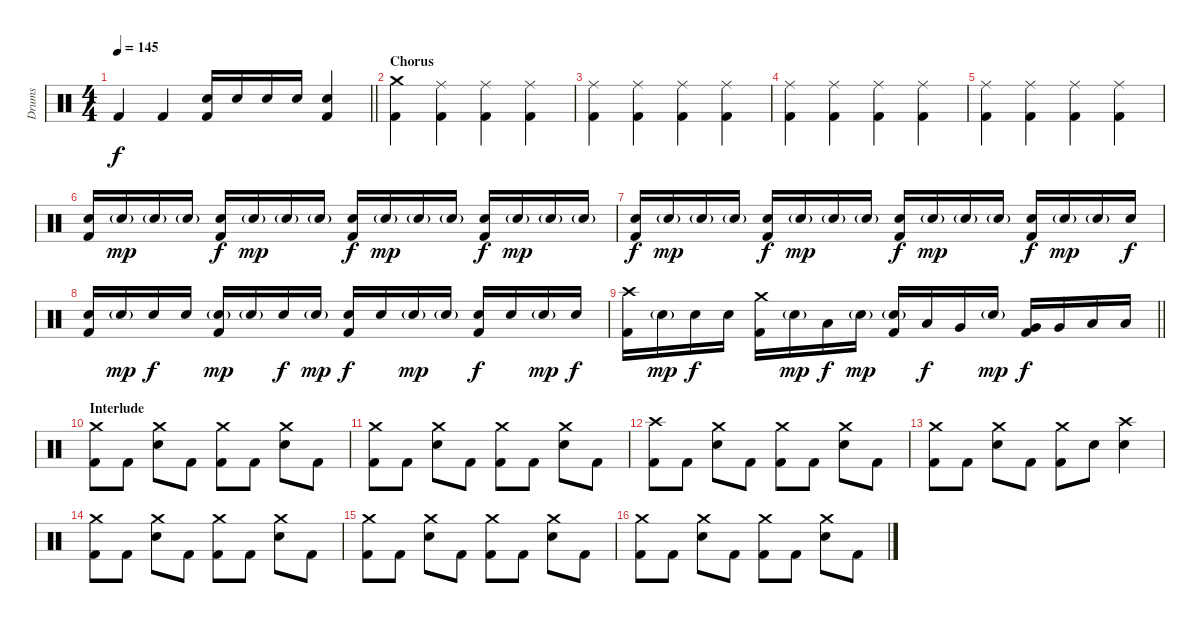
\track ("Drums" "Drums") {instrument percussion}
\staff {score}
\articulation defaults
\ts (4 4)
\tempo 145
\clef neutral
\barLineRight lightlight
\ks c "Kick (hit) 2".4{dy f} "Kick (hit) 2".4
("Electric Snare (hit)" "Kick (hit) 2").16 "Electric Snare (hit)".16 "Electric Snare (hit)".16 "Electric Snare (hit)".16 ("Electric Snare (hit)" "Kick (hit) 2").4 |
\section ("" "Chorus")
("Crash medium (hit)" "Kick (hit) 2").4 ("Ride (middle)" "Kick (hit) 2").4 ("Ride (middle)" "Kick (hit) 2").4 ("Ride (middle)" "Kick (hit) 2").4 |
("Ride (middle)" "Kick (hit) 2").4 ("Ride (middle)" "Kick (hit) 2").4 ("Ride (middle)" "Kick (hit) 2").4 ("Ride (middle)" "Kick (hit) 2").4 |
("Ride (middle)" "Kick (hit) 2").4 ("Ride (middle)" "Kick (hit) 2").4 ("Ride (middle)" "Kick (hit) 2").4 ("Ride (middle)" "Kick (hit) 2").4 |
("Ride (middle)" "Kick (hit) 2").4 ("Ride (middle)" "Kick (hit) 2").4 ("Ride (middle)" "Kick (hit) 2").4 ("Ride (middle)" "Kick (hit) 2").4 |
("Electric Snare (hit)" "Kick (hit) 2").16 "Electric Snare (hit)"{g}.16{dy mp} "Electric Snare (hit)"{g}.16 "Electric Snare (hit)"{g}.16 ("Electric Snare (hit)" "Kick (hit) 2").16{dy f} "Electric Snare (hit)"{g}.16{dy mp} "Electric Snare (hit)"{g}.16 "Electric Snare (hit)"{g}.16 ("Electric Snare (hit)" "Kick (hit) 2").16{dy f} "Electric Snare (hit)"{g}.16{dy mp} "Electric Snare (hit)"{g}.16 "Electric Snare (hit)"{g}.16 ("Electric Snare (hit)" "Kick (hit) 2").16{dy f} "Electric Snare (hit)"{g}.16{dy mp} "Electric Snare (hit)"{g}.16 "Electric Snare (hit)"{g}.16 |
("Electric Snare (hit)" "Kick (hit) 2").16{dy f} "Electric Snare (hit)"{g}.16{dy mp} "Electric Snare (hit)"{g}.16 "Electric Snare (hit)"{g}.16 ("Electric Snare (hit)" "Kick (hit) 2").16{dy f} "Electric Snare (hit)"{g}.16{dy mp} "Electric Snare (hit)"{g}.16 "Electric Snare (hit)"{g}.16 ("Electric Snare (hit)" "Kick (hit) 2").16{dy f} "Electric Snare (hit)"{g}.16{dy mp} "Electric Snare (hit)"{g}.16 "Electric Snare (hit)"{g}.16 ("Electric Snare (hit)" "Kick (hit) 2").16{dy f} "Electric Snare (hit)"{g}.16{dy mp} "Electric Snare (hit)"{g}.16 "Electric Snare (hit)".16{dy f} |
("Electric Snare (hit)" "Kick (hit) 2").16 "Electric Snare (hit)"{g}.16{dy mp} "Electric Snare (hit)".16{dy f} "Electric Snare (hit)".16 ("Electric Snare (hit)"{g} "Kick (hit) 2").16{dy mp} "Electric Snare (hit)"{g}.16 "Electric Snare (hit)".16{dy f} "Electric Snare (hit)"{g}.16{dy mp} ("Electric Snare (hit)" "Kick (hit) 2").16{dy f} "Electric Snare (hit)".16 "Electric Snare (hit)"{g}.16{dy mp} "Electric Snare (hit)"{g}.16 ("Electric Snare (hit)" "Kick (hit) 2").16{dy f} "Electric Snare (hit)".16 "Electric Snare (hit)"{g}.16{dy mp} "Electric Snare (hit)".16{dy f} |
\barLineRight lightlight
("Crash high (hit)" "Kick (hit) 2").16 "Electric Snare (hit)"{g}.16{dy mp} "Electric Snare (hit)".16{dy f} "Electric Snare (hit)".16 ("Crash medium (hit)" "Kick (hit) 2").16 "Electric Snare (hit)"{g}.16{dy mp} "Low Tom (hit)".16{dy f} "Electric Snare (hit)"{g}.16{dy mp} ("Electric Snare (hit)"{g} "Kick (hit) 2").16 "Low Tom (hit)".16{dy f} "Very Low Tom (hit)".16 "Electric Snare (hit)"{g}.16{dy mp} ("Very Low Tom (hit)" "Kick (hit) 2").16{dy f} "Very Low Tom (hit)".16 "Low Floor Tom (hit)".16 "Low Floor Tom (hit)".16 |
\section ("" "Interlude")
("Crash medium (hit)" "Kick (hit) 2").8 "Kick (hit) 2".8 ("Crash medium (hit)" "Electric Snare (hit)").8 "Kick (hit) 2".8 ("Crash medium (hit)" "Kick (hit) 2").8 "Kick (hit) 2".8 ("Crash medium (hit)" "Electric Snare (hit)").8 "Kick (hit) 2".8 |
("Crash medium (hit)" "Kick (hit) 2").8 "Kick (hit) 2".8 ("Crash medium (hit)" "Electric Snare (hit)").8 "Kick (hit) 2".8 ("Crash medium (hit)" "Kick (hit) 2").8 "Kick (hit) 2".8 ("Crash medium (hit)" "Electric Snare (hit)").8 "Kick (hit) 2".8 |
("Crash high (hit)" "Kick (hit) 2").8 "Kick (hit) 2".8 ("Crash medium (hit)" "Electric Snare (hit)").8 "Kick (hit) 2".8 ("Crash medium (hit)" "Kick (hit) 2").8 "Kick (hit) 2".8 ("Crash medium (hit)" "Electric Snare (hit)").8 "Kick (hit) 2".8 |
("Crash medium (hit)" "Kick (hit) 2").8 "Kick (hit) 2".8 ("Crash medium (hit)" "Electric Snare (hit)").8 "Kick (hit) 2".8 ("Crash medium (hit)" "Kick (hit) 2").8 "Electric Snare (hit)".8 ("Crash high (hit)" "Electric Snare (hit)").4 |
("Crash medium (hit)" "Kick (hit) 2").8 "Kick (hit) 2".8 ("Crash medium (hit)" "Electric Snare (hit)").8 "Kick (hit) 2".8 ("Crash medium (hit)" "Kick (hit) 2").8 "Kick (hit) 2".8 ("Crash medium (hit)" "Electric Snare (hit)").8 "Kick (hit) 2".8 |
("Crash medium (hit)" "Kick (hit) 2").8 "Kick (hit) 2".8 ("Crash medium (hit)" "Electric Snare (hit)").8 "Kick (hit) 2".8 ("Crash medium (hit)" "Kick (hit) 2").8 "Kick (hit) 2".8 ("Crash medium (hit)" "Electric Snare (hit)").8 "Kick (hit) 2".8 |
("Crash medium (hit)" "Kick (hit) 2").8 "Kick (hit) 2".8 ("Crash medium (hit)" "Electric Snare (hit)").8 "Kick (hit) 2".8 ("Crash medium (hit)" "Kick (hit) 2").8 "Kick (hit) 2".8 ("Crash medium (hit)" "Electric Snare (hit)").8 "Kick (hit) 2".8
